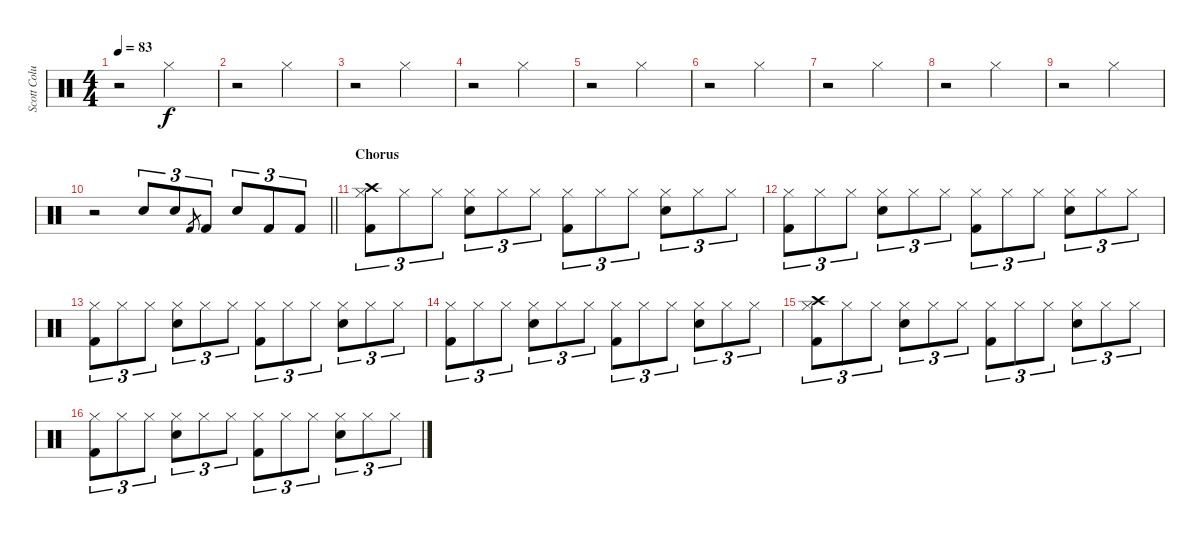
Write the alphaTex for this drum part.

\track ("Scott Columbus" "Scott Colu") {instrument percussion}
\staff {score}
\articulation defaults
\ts (4 4)
\tempo 83
\clef neutral
\ks c
r.2{dy f} "Hi-Hat (closed)".2 |
r.2 "Hi-Hat (closed)".2 |
r.2 "Hi-Hat (closed)".2 |
r.2 "Hi-Hat (closed)".2 |
r.2 "Hi-Hat (closed)".2 |
r.2 "Hi-Hat (closed)".2 |
r.2 "Hi-Hat (closed)".2 |
r.2 "Hi-Hat (closed)".2 |
r.2 "Hi-Hat (closed)".2 |
\barLineRight lightlight
r.2 "Electric Snare (hit)".8{tu (3 2)} "Electric Snare (hit)".8{tu (3 2)} "Kick (hit) 2".8{gr} "Kick (hit) 2".8{tu (3 2)} "Electric Snare (hit)".8{tu (3 2)} "Kick (hit) 2".8{tu (3 2)} "Kick (hit) 2".8{tu (3 2)} |
\section ("" "Chorus")
("Kick (hit) 2" "Hi-Hat (closed)" "Crash high (hit)").8{tu (3 2)} "Hi-Hat (closed)".8{tu (3 2)} "Hi-Hat (closed)".8{tu (3 2)} ("Electric Snare (hit)" "Hi-Hat (closed)").8{tu (3 2)} "Hi-Hat (closed)".8{tu (3 2)} "Hi-Hat (closed)".8{tu (3 2)} ("Kick (hit) 2" "Hi-Hat (closed)").8{tu (3 2)} "Hi-Hat (closed)".8{tu (3 2)} "Hi-Hat (closed)".8{tu (3 2)} ("Electric Snare (hit)" "Hi-Hat (closed)").8{tu (3 2)} "Hi-Hat (closed)".8{tu (3 2)} "Hi-Hat (closed)".8{tu (3 2)} |
("Kick (hit) 2" "Hi-Hat (closed)").8{tu (3 2)} "Hi-Hat (closed)".8{tu (3 2)} "Hi-Hat (closed)".8{tu (3 2)} ("Electric Snare (hit)" "Hi-Hat (closed)").8{tu (3 2)} "Hi-Hat (closed)".8{tu (3 2)} "Hi-Hat (closed)".8{tu (3 2)} ("Kick (hit) 2" "Hi-Hat (closed)").8{tu (3 2)} "Hi-Hat (closed)".8{tu (3 2)} "Hi-Hat (closed)".8{tu (3 2)} ("Electric Snare (hit)" "Hi-Hat (closed)").8{tu (3 2)} "Hi-Hat (closed)".8{tu (3 2)} "Hi-Hat (closed)".8{tu (3 2)} |
("Kick (hit) 2" "Hi-Hat (closed)").8{tu (3 2)} "Hi-Hat (closed)".8{tu (3 2)} "Hi-Hat (closed)".8{tu (3 2)} ("Electric Snare (hit)" "Hi-Hat (closed)").8{tu (3 2)} "Hi-Hat (closed)".8{tu (3 2)} "Hi-Hat (closed)".8{tu (3 2)} ("Kick (hit) 2" "Hi-Hat (closed)").8{tu (3 2)} "Hi-Hat (closed)".8{tu (3 2)} "Hi-Hat (closed)".8{tu (3 2)} ("Electric Snare (hit)" "Hi-Hat (closed)").8{tu (3 2)} "Hi-Hat (closed)".8{tu (3 2)} "Hi-Hat (closed)".8{tu (3 2)} |
("Kick (hit) 2" "Hi-Hat (closed)").8{tu (3 2)} "Hi-Hat (closed)".8{tu (3 2)} "Hi-Hat (closed)".8{tu (3 2)} ("Electric Snare (hit)" "Hi-Hat (closed)").8{tu (3 2)} "Hi-Hat (closed)".8{tu (3 2)} "Hi-Hat (closed)".8{tu (3 2)} ("Kick (hit) 2" "Hi-Hat (closed)").8{tu (3 2)} "Hi-Hat (closed)".8{tu (3 2)} "Hi-Hat (closed)".8{tu (3 2)} ("Electric Snare (hit)" "Hi-Hat (closed)").8{tu (3 2)} "Hi-Hat (closed)".8{tu (3 2)} "Hi-Hat (closed)".8{tu (3 2)} |
("Kick (hit) 2" "Hi-Hat (closed)" "Crash high (hit)").8{tu (3 2)} "Hi-Hat (closed)".8{tu (3 2)} "Hi-Hat (closed)".8{tu (3 2)} ("Electric Snare (hit)" "Hi-Hat (closed)").8{tu (3 2)} "Hi-Hat (closed)".8{tu (3 2)} "Hi-Hat (closed)".8{tu (3 2)} ("Kick (hit) 2" "Hi-Hat (closed)").8{tu (3 2)} "Hi-Hat (closed)".8{tu (3 2)} "Hi-Hat (closed)".8{tu (3 2)} ("Electric Snare (hit)" "Hi-Hat (closed)").8{tu (3 2)} "Hi-Hat (closed)".8{tu (3 2)} "Hi-Hat (closed)".8{tu (3 2)} |
("Kick (hit) 2" "Hi-Hat (closed)").8{tu (3 2)} "Hi-Hat (closed)".8{tu (3 2)} "Hi-Hat (closed)".8{tu (3 2)} ("Electric Snare (hit)" "Hi-Hat (closed)").8{tu (3 2)} "Hi-Hat (closed)".8{tu (3 2)} "Hi-Hat (closed)".8{tu (3 2)} ("Kick (hit) 2" "Hi-Hat (closed)").8{tu (3 2)} "Hi-Hat (closed)".8{tu (3 2)} "Hi-Hat (closed)".8{tu (3 2)} ("Electric Snare (hit)" "Hi-Hat (closed)").8{tu (3 2)} "Hi-Hat (closed)".8{tu (3 2)} "Hi-Hat (closed)".8{tu (3 2)}
